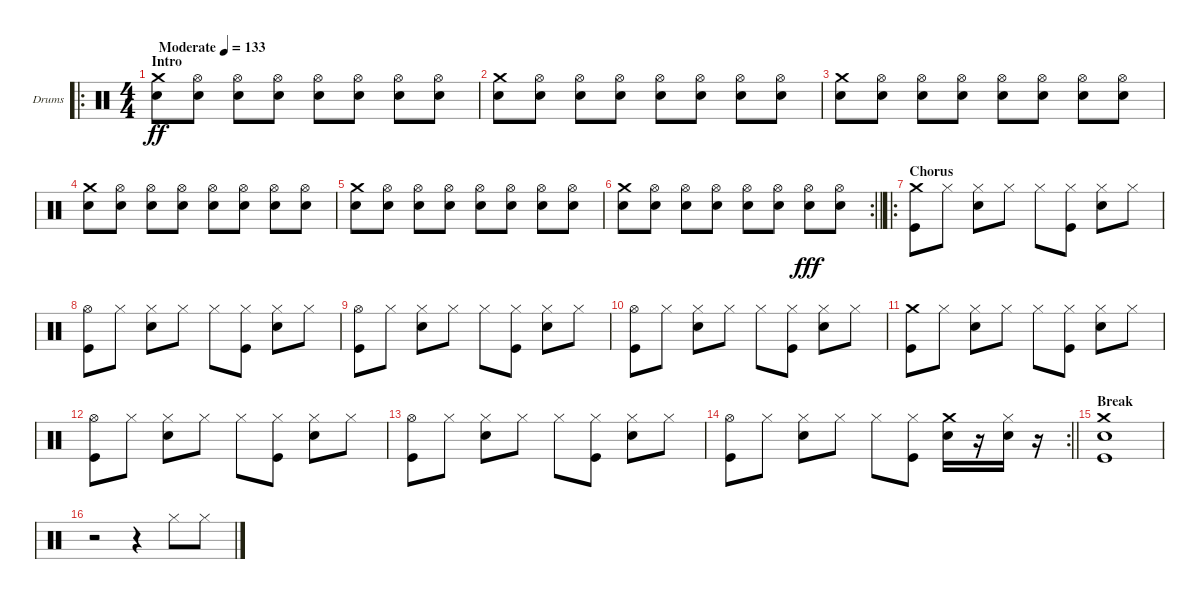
\bracketExtendMode groupsimilarinstruments
\firstSystemTrackNameOrientation horizontal
\otherSystemsTrackNameOrientation horizontal
\track ("Drumkit" "Drums") {instrument percussion}
\staff {score}
\articulation defaults
\ro
\ts (4 4)
\beaming (8 2 2 2 2)
\section ("" "Intro")
\tempo (133 "Moderate")
\clef neutral
\ks c
("Crash medium (hit)" "Snare (hit) 2").8{dy ff} ("Hi-Hat (open)" "Snare (hit) 2").8 ("Hi-Hat (open)" "Snare (hit) 2").8 ("Hi-Hat (open)" "Snare (hit) 2").8 ("Hi-Hat (open)" "Snare (hit) 2").8 ("Hi-Hat (open)" "Snare (hit) 2").8 ("Hi-Hat (open)" "Snare (hit) 2").8 ("Hi-Hat (open)" "Snare (hit) 2").8 |
("Crash medium (hit)" "Snare (hit) 2").8 ("Hi-Hat (open)" "Snare (hit) 2").8 ("Hi-Hat (open)" "Snare (hit) 2").8 ("Hi-Hat (open)" "Snare (hit) 2").8 ("Hi-Hat (open)" "Snare (hit) 2").8 ("Hi-Hat (open)" "Snare (hit) 2").8 ("Hi-Hat (open)" "Snare (hit) 2").8 ("Hi-Hat (open)" "Snare (hit) 2").8 |
("Crash medium (hit)" "Snare (hit) 2").8 ("Hi-Hat (open)" "Snare (hit) 2").8 ("Hi-Hat (open)" "Snare (hit) 2").8 ("Hi-Hat (open)" "Snare (hit) 2").8 ("Hi-Hat (open)" "Snare (hit) 2").8 ("Hi-Hat (open)" "Snare (hit) 2").8 ("Hi-Hat (open)" "Snare (hit) 2").8 ("Hi-Hat (open)" "Snare (hit) 2").8 |
("Crash medium (hit)" "Snare (hit) 2").8 ("Hi-Hat (open)" "Snare (hit) 2").8 ("Hi-Hat (open)" "Snare (hit) 2").8 ("Hi-Hat (open)" "Snare (hit) 2").8 ("Hi-Hat (open)" "Snare (hit) 2").8 ("Hi-Hat (open)" "Snare (hit) 2").8 ("Hi-Hat (open)" "Snare (hit) 2").8 ("Hi-Hat (open)" "Snare (hit) 2").8 |
("Crash medium (hit)" "Snare (hit) 2").8 ("Hi-Hat (open)" "Snare (hit) 2").8 ("Hi-Hat (open)" "Snare (hit) 2").8 ("Hi-Hat (open)" "Snare (hit) 2").8 ("Hi-Hat (open)" "Snare (hit) 2").8 ("Hi-Hat (open)" "Snare (hit) 2").8 ("Hi-Hat (open)" "Snare (hit) 2").8 ("Hi-Hat (open)" "Snare (hit) 2").8 |
\rc 2
\barLineRight lightlight
("Crash medium (hit)" "Snare (hit) 2").8 ("Hi-Hat (open)" "Snare (hit) 2").8 ("Hi-Hat (open)" "Snare (hit) 2").8 ("Hi-Hat (open)" "Snare (hit) 2").8 ("Hi-Hat (open)" "Snare (hit) 2").8 ("Hi-Hat (open)" "Snare (hit) 2").8 ("Hi-Hat (open)" "Snare (hit) 2").8{dy fff} ("Hi-Hat (open)" "Snare (hit) 2").8 |
\ro
\section ("" "Chorus")
("Crash medium (hit)" "Kick (hit)").8 "Hi-Hat (closed)".8 ("Hi-Hat (closed)" "Snare (hit) 2").8 "Hi-Hat (closed)".8 "Hi-Hat (closed)".8 ("Hi-Hat (closed)" "Kick (hit)").8 ("Hi-Hat (closed)" "Snare (hit) 2").8 "Hi-Hat (closed)".8 |
("Hi-Hat (open)" "Kick (hit)").8 "Hi-Hat (closed)".8 ("Hi-Hat (closed)" "Snare (hit) 2").8 "Hi-Hat (closed)".8 "Hi-Hat (closed)".8 ("Hi-Hat (closed)" "Kick (hit)").8 ("Hi-Hat (closed)" "Snare (hit) 2").8 "Hi-Hat (closed)".8 |
("Hi-Hat (open)" "Kick (hit)").8 "Hi-Hat (closed)".8 ("Hi-Hat (closed)" "Snare (hit) 2").8 "Hi-Hat (closed)".8 "Hi-Hat (closed)".8 ("Hi-Hat (closed)" "Kick (hit)").8 ("Hi-Hat (closed)" "Snare (hit) 2").8 "Hi-Hat (closed)".8 |
("Hi-Hat (open)" "Kick (hit)").8 "Hi-Hat (closed)".8 ("Hi-Hat (closed)" "Snare (hit) 2").8 "Hi-Hat (closed)".8 "Hi-Hat (closed)".8 ("Hi-Hat (closed)" "Kick (hit)").8 ("Hi-Hat (closed)" "Snare (hit) 2").8 "Hi-Hat (closed)".8 |
("Crash medium (hit)" "Kick (hit)").8 "Hi-Hat (closed)".8 ("Hi-Hat (closed)" "Snare (hit) 2").8 "Hi-Hat (closed)".8 "Hi-Hat (closed)".8 ("Hi-Hat (closed)" "Kick (hit)").8 ("Hi-Hat (closed)" "Snare (hit) 2").8 "Hi-Hat (closed)".8 |
("Hi-Hat (open)" "Kick (hit)").8 "Hi-Hat (closed)".8 ("Hi-Hat (closed)" "Snare (hit) 2").8 "Hi-Hat (closed)".8 "Hi-Hat (closed)".8 ("Hi-Hat (closed)" "Kick (hit)").8 ("Hi-Hat (closed)" "Snare (hit) 2").8 "Hi-Hat (closed)".8 |
("Hi-Hat (open)" "Kick (hit)").8 "Hi-Hat (closed)".8 ("Hi-Hat (closed)" "Snare (hit) 2").8 "Hi-Hat (closed)".8 "Hi-Hat (closed)".8 ("Hi-Hat (closed)" "Kick (hit)").8 ("Hi-Hat (closed)" "Snare (hit) 2").8 "Hi-Hat (closed)".8 |
\rc 2
\barLineRight lightlight
("Hi-Hat (open)" "Kick (hit)").8 "Hi-Hat (closed)".8 ("Hi-Hat (closed)" "Snare (hit) 2").8 "Hi-Hat (closed)".8 "Hi-Hat (closed)".8 ("Hi-Hat (closed)" "Kick (hit)").8 ("Crash medium (hit)" "Snare (hit) 2").16 r.16 ("Hi-Hat (closed)" "Snare (hit) 2").16 r.16 |
\section ("" "Break")
("Crash medium (hit)" "Snare (hit) 2" "Kick (hit)").1 |
r.2 r.4 "Hi-Hat (closed)".8 "Hi-Hat (closed)".8
